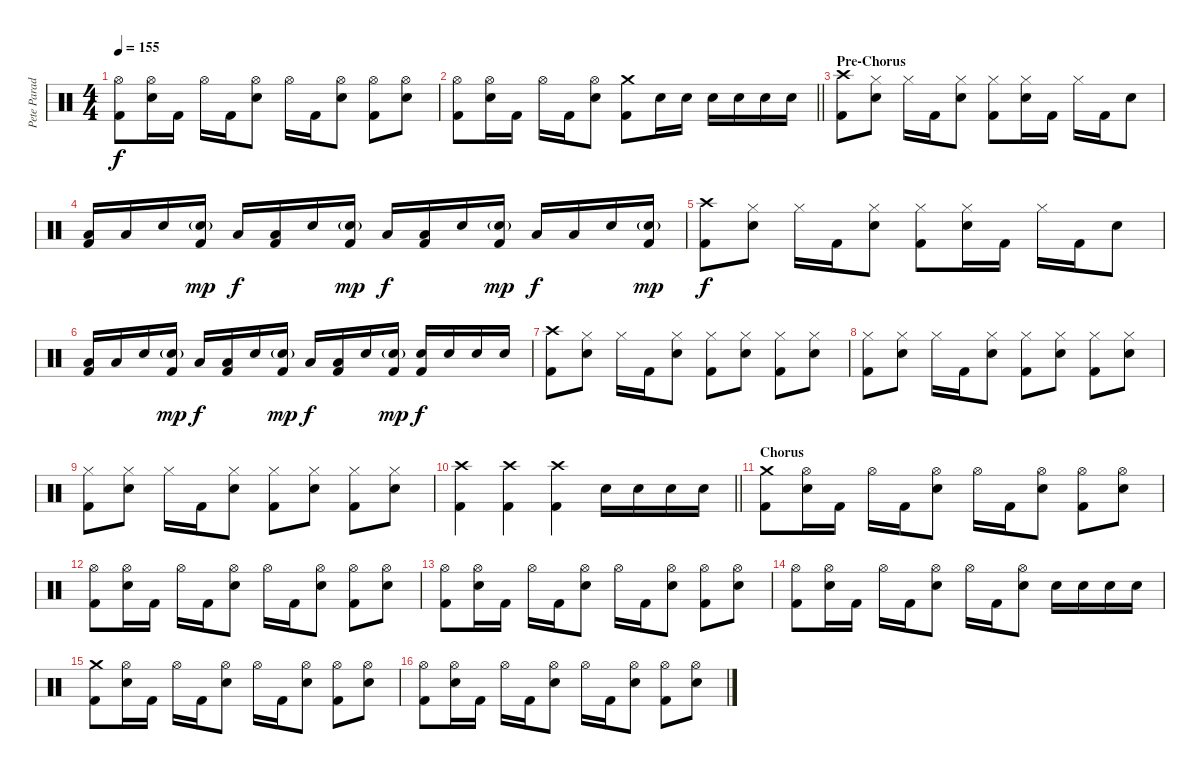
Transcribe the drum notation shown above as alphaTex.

\track ("Pete Parada - Drums" "Pete Parad") {instrument percussion}
\staff {score}
\articulation defaults
\ts (4 4)
\tempo 155
\clef neutral
\ks c
("Hi-Hat (open)" "Kick (hit) 2").8{dy f} ("Hi-Hat (open)" "Electric Snare (hit)").16 "Kick (hit) 2".16 "Hi-Hat (open)".16 "Kick (hit) 2".16 ("Hi-Hat (open)" "Electric Snare (hit)").8 "Hi-Hat (open)".16 "Kick (hit) 2".16 ("Hi-Hat (open)" "Electric Snare (hit)").8 ("Hi-Hat (open)" "Kick (hit) 2").8 ("Hi-Hat (open)" "Electric Snare (hit)").8 |
\barLineRight lightlight
("Hi-Hat (open)" "Kick (hit) 2").8 ("Hi-Hat (open)" "Electric Snare (hit)").16 "Kick (hit) 2".16 "Hi-Hat (open)".16 "Kick (hit) 2".16 ("Hi-Hat (open)" "Electric Snare (hit)").8 ("Crash medium (hit)" "Kick (hit) 2").8 "Electric Snare (hit)".16 "Electric Snare (hit)".16 "Electric Snare (hit)".16 "Electric Snare (hit)".16 "Electric Snare (hit)".16 "Electric Snare (hit)".16 |
\section ("" "Pre-Chorus")
("Crash high (hit)" "Kick (hit) 2").8 ("Hi-Hat (closed)" "Electric Snare (hit)").8 "Hi-Hat (closed)".16 "Kick (hit) 2".16 ("Hi-Hat (closed)" "Electric Snare (hit)").8 ("Hi-Hat (closed)" "Kick (hit) 2").8 ("Hi-Hat (closed)" "Electric Snare (hit)").16 "Kick (hit) 2".16 "Hi-Hat (closed)".16 "Kick (hit) 2".16 "Electric Snare (hit)".8 |
("Low Tom (hit)" "Kick (hit) 2").16 "Low Tom (hit)".16 "Electric Snare (hit)".16 ("Electric Snare (hit)"{g} "Kick (hit) 2").16{dy mp} "Low Tom (hit)".16{dy f} ("Low Tom (hit)" "Kick (hit) 2").16 "Electric Snare (hit)".16 ("Electric Snare (hit)"{g} "Kick (hit) 2").16{dy mp} "Low Tom (hit)".16{dy f} ("Low Tom (hit)" "Kick (hit) 2").16 "Electric Snare (hit)".16 ("Electric Snare (hit)"{g} "Kick (hit) 2").16{dy mp} "Low Tom (hit)".16{dy f} "Low Tom (hit)".16 "Electric Snare (hit)".16 ("Electric Snare (hit)"{g} "Kick (hit) 2").16{dy mp} |
("Crash high (hit)" "Kick (hit) 2").8{dy f} ("Hi-Hat (closed)" "Electric Snare (hit)").8 "Hi-Hat (closed)".16 "Kick (hit) 2".16 ("Hi-Hat (closed)" "Electric Snare (hit)").8 ("Hi-Hat (closed)" "Kick (hit) 2").8 ("Hi-Hat (closed)" "Electric Snare (hit)").16 "Kick (hit) 2".16 "Hi-Hat (closed)".16 "Kick (hit) 2".16 "Electric Snare (hit)".8 |
("Low Tom (hit)" "Kick (hit) 2").16 "Low Tom (hit)".16 "Electric Snare (hit)".16 ("Electric Snare (hit)"{g} "Kick (hit) 2").16{dy mp} "Low Tom (hit)".16{dy f} ("Low Tom (hit)" "Kick (hit) 2").16 "Electric Snare (hit)".16 ("Electric Snare (hit)"{g} "Kick (hit) 2").16{dy mp} "Low Tom (hit)".16{dy f} ("Low Tom (hit)" "Kick (hit) 2").16 "Electric Snare (hit)".16 ("Electric Snare (hit)"{g} "Kick (hit) 2").16{dy mp} ("Electric Snare (hit)" "Kick (hit) 2").16{dy f} "Electric Snare (hit)".16 "Electric Snare (hit)".16 "Electric Snare (hit)".16 |
("Crash high (hit)" "Kick (hit) 2").8 ("Hi-Hat (closed)" "Electric Snare (hit)").8 "Hi-Hat (closed)".16 "Kick (hit) 2".16 ("Hi-Hat (closed)" "Electric Snare (hit)").8 ("Hi-Hat (closed)" "Kick (hit) 2").8 ("Hi-Hat (closed)" "Electric Snare (hit)").8 ("Hi-Hat (closed)" "Kick (hit) 2").8 ("Hi-Hat (closed)" "Electric Snare (hit)").8 |
("Hi-Hat (closed)" "Kick (hit) 2").8 ("Hi-Hat (closed)" "Electric Snare (hit)").8 "Hi-Hat (closed)".16 "Kick (hit) 2".16 ("Hi-Hat (closed)" "Electric Snare (hit)").8 ("Hi-Hat (closed)" "Kick (hit) 2").8 ("Hi-Hat (closed)" "Electric Snare (hit)").8 ("Hi-Hat (closed)" "Kick (hit) 2").8 ("Hi-Hat (closed)" "Electric Snare (hit)").8 |
("Hi-Hat (closed)" "Kick (hit) 2").8 ("Hi-Hat (closed)" "Electric Snare (hit)").8 "Hi-Hat (closed)".16 "Kick (hit) 2".16 ("Hi-Hat (closed)" "Electric Snare (hit)").8 ("Hi-Hat (closed)" "Kick (hit) 2").8 ("Hi-Hat (closed)" "Electric Snare (hit)").8 ("Hi-Hat (closed)" "Kick (hit) 2").8 ("Hi-Hat (closed)" "Electric Snare (hit)").8 |
\barLineRight lightlight
("Crash high (hit)" "Kick (hit) 2").4 ("Crash high (hit)" "Kick (hit) 2").4 ("Crash high (hit)" "Kick (hit) 2").4 "Electric Snare (hit)".16 "Electric Snare (hit)".16 "Electric Snare (hit)".16 "Electric Snare (hit)".16 |
\section ("" "Chorus")
("Crash medium (hit)" "Kick (hit) 2").8 ("Hi-Hat (open)" "Electric Snare (hit)").16 "Kick (hit) 2".16 "Hi-Hat (open)".16 "Kick (hit) 2".16 ("Hi-Hat (open)" "Electric Snare (hit)").8 "Hi-Hat (open)".16 "Kick (hit) 2".16 ("Hi-Hat (open)" "Electric Snare (hit)").8 ("Hi-Hat (open)" "Kick (hit) 2").8 ("Hi-Hat (open)" "Electric Snare (hit)").8 |
("Hi-Hat (open)" "Kick (hit) 2").8 ("Hi-Hat (open)" "Electric Snare (hit)").16 "Kick (hit) 2".16 "Hi-Hat (open)".16 "Kick (hit) 2".16 ("Hi-Hat (open)" "Electric Snare (hit)").8 "Hi-Hat (open)".16 "Kick (hit) 2".16 ("Hi-Hat (open)" "Electric Snare (hit)").8 ("Hi-Hat (open)" "Kick (hit) 2").8 ("Hi-Hat (open)" "Electric Snare (hit)").8 |
("Hi-Hat (open)" "Kick (hit) 2").8 ("Hi-Hat (open)" "Electric Snare (hit)").16 "Kick (hit) 2".16 "Hi-Hat (open)".16 "Kick (hit) 2".16 ("Hi-Hat (open)" "Electric Snare (hit)").8 "Hi-Hat (open)".16 "Kick (hit) 2".16 ("Hi-Hat (open)" "Electric Snare (hit)").8 ("Hi-Hat (open)" "Kick (hit) 2").8 ("Hi-Hat (open)" "Electric Snare (hit)").8 |
("Hi-Hat (open)" "Kick (hit) 2").8 ("Hi-Hat (open)" "Electric Snare (hit)").16 "Kick (hit) 2".16 "Hi-Hat (open)".16 "Kick (hit) 2".16 ("Hi-Hat (open)" "Electric Snare (hit)").8 "Hi-Hat (open)".16 "Kick (hit) 2".16 ("Hi-Hat (open)" "Electric Snare (hit)").8 "Electric Snare (hit)".16 "Electric Snare (hit)".16 "Electric Snare (hit)".16 "Electric Snare (hit)".16 |
("Crash medium (hit)" "Kick (hit) 2").8 ("Hi-Hat (open)" "Electric Snare (hit)").16 "Kick (hit) 2".16 "Hi-Hat (open)".16 "Kick (hit) 2".16 ("Hi-Hat (open)" "Electric Snare (hit)").8 "Hi-Hat (open)".16 "Kick (hit) 2".16 ("Hi-Hat (open)" "Electric Snare (hit)").8 ("Hi-Hat (open)" "Kick (hit) 2").8 ("Hi-Hat (open)" "Electric Snare (hit)").8 |
("Hi-Hat (open)" "Kick (hit) 2").8 ("Hi-Hat (open)" "Electric Snare (hit)").16 "Kick (hit) 2".16 "Hi-Hat (open)".16 "Kick (hit) 2".16 ("Hi-Hat (open)" "Electric Snare (hit)").8 "Hi-Hat (open)".16 "Kick (hit) 2".16 ("Hi-Hat (open)" "Electric Snare (hit)").8 ("Hi-Hat (open)" "Kick (hit) 2").8 ("Hi-Hat (open)" "Electric Snare (hit)").8
